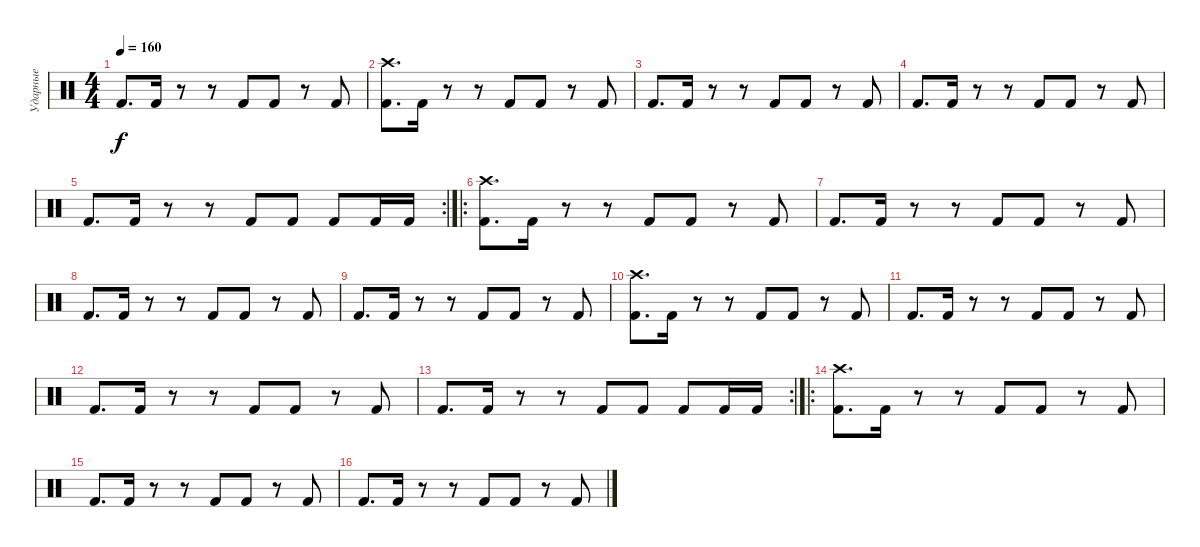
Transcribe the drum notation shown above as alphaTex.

\track ("Ударные" "Ударные") {instrument percussion}
\staff {score}
\articulation defaults
\ts (4 4)
\tempo 160
\clef neutral
\ks c "Kick (hit) 2".8{d dy f} "Kick (hit) 2".16
r.8 r.8 "Kick (hit) 2".8 "Kick (hit) 2".8 r.8 "Kick (hit) 2".8 |
("Kick (hit) 2" "Crash high (hit)").8{d} "Kick (hit) 2".16 r.8 r.8 "Kick (hit) 2".8 "Kick (hit) 2".8 r.8 "Kick (hit) 2".8 |
"Kick (hit) 2".8{d} "Kick (hit) 2".16 r.8 r.8 "Kick (hit) 2".8 "Kick (hit) 2".8 r.8 "Kick (hit) 2".8 |
"Kick (hit) 2".8{d} "Kick (hit) 2".16 r.8 r.8 "Kick (hit) 2".8 "Kick (hit) 2".8 r.8 "Kick (hit) 2".8 |
\rc 2 "Kick (hit) 2".8{d} "Kick (hit) 2".16
r.8 r.8 "Kick (hit) 2".8 "Kick (hit) 2".8 "Kick (hit) 2".8 "Kick (hit) 2".16 "Kick (hit) 2".16 |
\ro
("Kick (hit) 2" "Crash high (hit)").8{d} "Kick (hit) 2".16 r.8 r.8 "Kick (hit) 2".8 "Kick (hit) 2".8 r.8 "Kick (hit) 2".8 |
"Kick (hit) 2".8{d} "Kick (hit) 2".16 r.8 r.8 "Kick (hit) 2".8 "Kick (hit) 2".8 r.8 "Kick (hit) 2".8 |
"Kick (hit) 2".8{d} "Kick (hit) 2".16 r.8 r.8 "Kick (hit) 2".8 "Kick (hit) 2".8 r.8 "Kick (hit) 2".8 |
"Kick (hit) 2".8{d} "Kick (hit) 2".16 r.8 r.8 "Kick (hit) 2".8 "Kick (hit) 2".8 r.8 "Kick (hit) 2".8 |
("Kick (hit) 2" "Crash high (hit)").8{d} "Kick (hit) 2".16 r.8 r.8 "Kick (hit) 2".8 "Kick (hit) 2".8 r.8 "Kick (hit) 2".8 |
"Kick (hit) 2".8{d} "Kick (hit) 2".16 r.8 r.8 "Kick (hit) 2".8 "Kick (hit) 2".8 r.8 "Kick (hit) 2".8 |
"Kick (hit) 2".8{d} "Kick (hit) 2".16 r.8 r.8 "Kick (hit) 2".8 "Kick (hit) 2".8 r.8 "Kick (hit) 2".8 |
\rc 2 "Kick (hit) 2".8{d} "Kick (hit) 2".16
r.8 r.8 "Kick (hit) 2".8 "Kick (hit) 2".8 "Kick (hit) 2".8 "Kick (hit) 2".16 "Kick (hit) 2".16 |
\ro
("Kick (hit) 2" "Crash high (hit)").8{d} "Kick (hit) 2".16 r.8 r.8 "Kick (hit) 2".8 "Kick (hit) 2".8 r.8 "Kick (hit) 2".8 |
"Kick (hit) 2".8{d} "Kick (hit) 2".16 r.8 r.8 "Kick (hit) 2".8 "Kick (hit) 2".8 r.8 "Kick (hit) 2".8 |
"Kick (hit) 2".8{d} "Kick (hit) 2".16 r.8 r.8 "Kick (hit) 2".8 "Kick (hit) 2".8 r.8 "Kick (hit) 2".8
